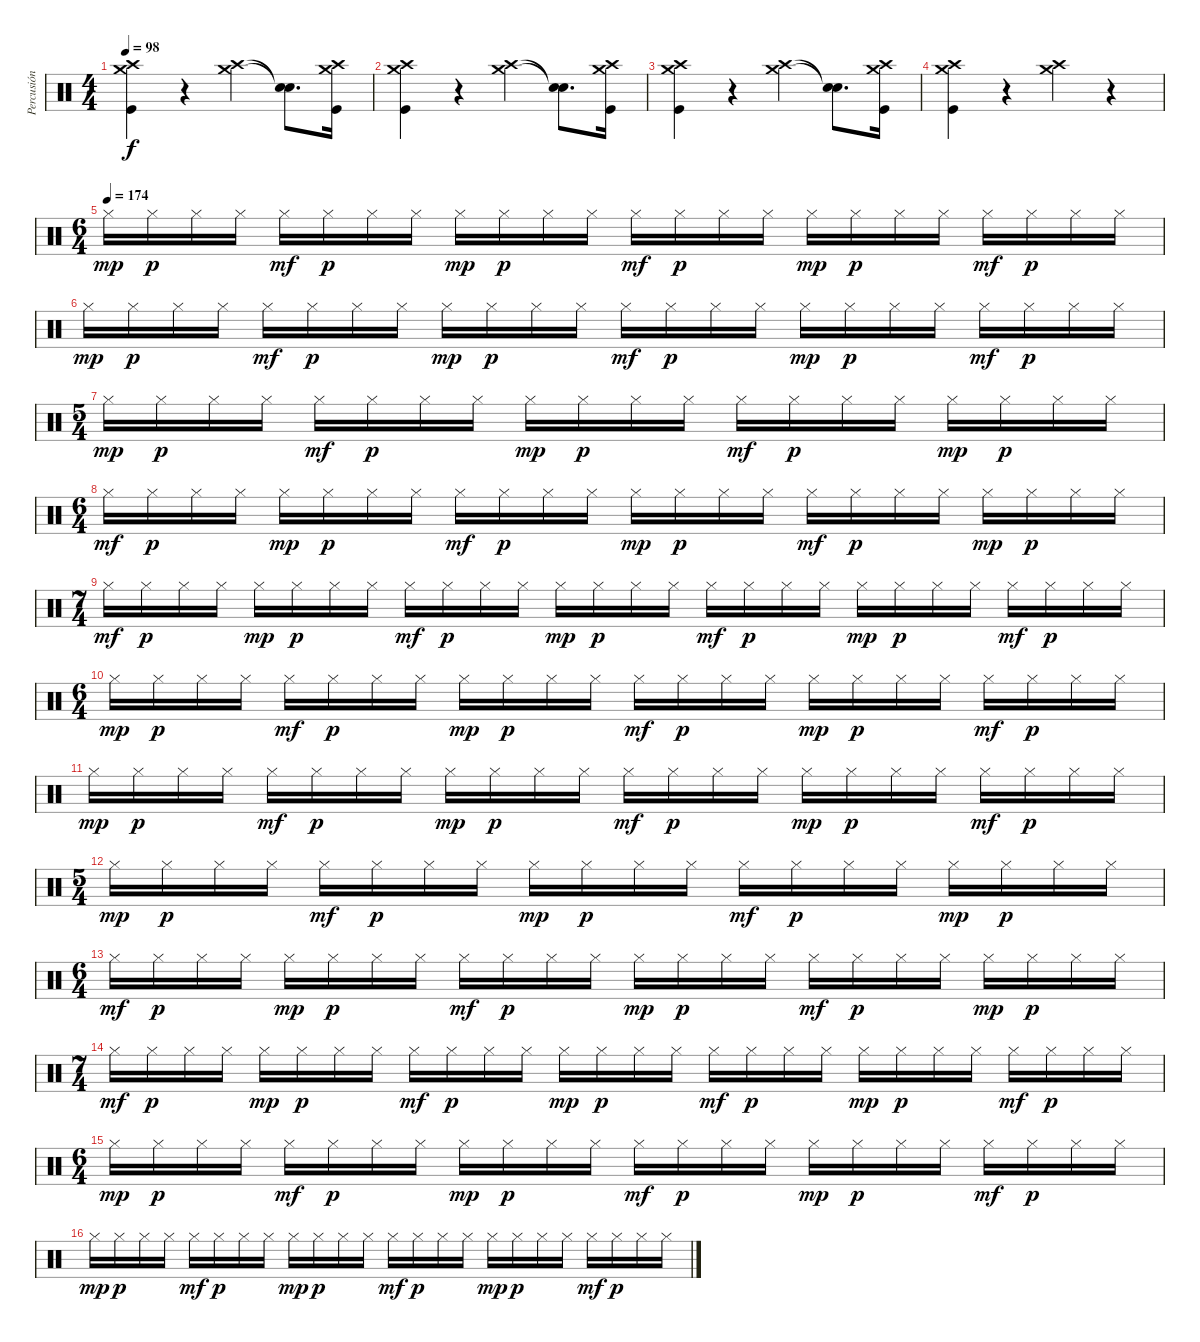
\track ("Percusión" "Percusión") {instrument percussion}
\staff {score}
\articulation defaults
\ts (4 4)
\tempo 98
\clef neutral
\ks c
("Crash high (hit)" "Crash medium (hit)" "Kick (hit)").4{dy f} r.4{volume 0} ("Crash high (hit)" "Crash medium (hit)").4{volume 14} ("Snare (hit)"{t} "Snare (hit)"{t}).8{d} ("Crash high (hit)" "Crash medium (hit)" "Kick (hit)").16 |
("Crash high (hit)" "Crash medium (hit)" "Kick (hit)").4 r.4{volume 0} ("Crash high (hit)" "Crash medium (hit)").4{volume 14} ("Snare (hit)"{t} "Snare (hit)"{t}).8{d} ("Crash high (hit)" "Crash medium (hit)" "Kick (hit)").16 |
("Crash high (hit)" "Crash medium (hit)" "Kick (hit)").4 r.4{volume 0} ("Crash high (hit)" "Crash medium (hit)").4{volume 14} ("Snare (hit)"{t} "Snare (hit)"{t}).8{d} ("Crash high (hit)" "Crash medium (hit)" "Kick (hit)").16 |
("Crash high (hit)" "Crash medium (hit)" "Kick (hit)").4 r.4{volume 0} ("Crash high (hit)" "Crash medium (hit)").4{volume 14} r.4 |
\ts (6 4)
\tempo (174)
"Hi-Hat (closed)".16{dy mp} "Hi-Hat (closed)".16{dy p} "Hi-Hat (closed)".16 "Hi-Hat (closed)".16 "Hi-Hat (closed)".16{dy mf} "Hi-Hat (closed)".16{dy p} "Hi-Hat (closed)".16 "Hi-Hat (closed)".16 "Hi-Hat (closed)".16{dy mp} "Hi-Hat (closed)".16{dy p} "Hi-Hat (closed)".16 "Hi-Hat (closed)".16 "Hi-Hat (closed)".16{dy mf} "Hi-Hat (closed)".16{dy p} "Hi-Hat (closed)".16 "Hi-Hat (closed)".16 "Hi-Hat (closed)".16{dy mp} "Hi-Hat (closed)".16{dy p} "Hi-Hat (closed)".16 "Hi-Hat (closed)".16 "Hi-Hat (closed)".16{dy mf} "Hi-Hat (closed)".16{dy p} "Hi-Hat (closed)".16 "Hi-Hat (closed)".16 |
"Hi-Hat (closed)".16{dy mp} "Hi-Hat (closed)".16{dy p} "Hi-Hat (closed)".16 "Hi-Hat (closed)".16 "Hi-Hat (closed)".16{dy mf} "Hi-Hat (closed)".16{dy p} "Hi-Hat (closed)".16 "Hi-Hat (closed)".16 "Hi-Hat (closed)".16{dy mp} "Hi-Hat (closed)".16{dy p} "Hi-Hat (closed)".16 "Hi-Hat (closed)".16 "Hi-Hat (closed)".16{dy mf} "Hi-Hat (closed)".16{dy p} "Hi-Hat (closed)".16 "Hi-Hat (closed)".16 "Hi-Hat (closed)".16{dy mp} "Hi-Hat (closed)".16{dy p} "Hi-Hat (closed)".16 "Hi-Hat (closed)".16 "Hi-Hat (closed)".16{dy mf} "Hi-Hat (closed)".16{dy p} "Hi-Hat (closed)".16 "Hi-Hat (closed)".16 |
\ts (5 4)
"Hi-Hat (closed)".16{dy mp} "Hi-Hat (closed)".16{dy p} "Hi-Hat (closed)".16 "Hi-Hat (closed)".16 "Hi-Hat (closed)".16{dy mf} "Hi-Hat (closed)".16{dy p} "Hi-Hat (closed)".16 "Hi-Hat (closed)".16 "Hi-Hat (closed)".16{dy mp} "Hi-Hat (closed)".16{dy p} "Hi-Hat (closed)".16 "Hi-Hat (closed)".16 "Hi-Hat (closed)".16{dy mf} "Hi-Hat (closed)".16{dy p} "Hi-Hat (closed)".16 "Hi-Hat (closed)".16 "Hi-Hat (closed)".16{dy mp} "Hi-Hat (closed)".16{dy p} "Hi-Hat (closed)".16 "Hi-Hat (closed)".16 |
\ts (6 4)
"Hi-Hat (closed)".16{dy mf} "Hi-Hat (closed)".16{dy p} "Hi-Hat (closed)".16 "Hi-Hat (closed)".16 "Hi-Hat (closed)".16{dy mp} "Hi-Hat (closed)".16{dy p} "Hi-Hat (closed)".16 "Hi-Hat (closed)".16 "Hi-Hat (closed)".16{dy mf} "Hi-Hat (closed)".16{dy p} "Hi-Hat (closed)".16 "Hi-Hat (closed)".16 "Hi-Hat (closed)".16{dy mp} "Hi-Hat (closed)".16{dy p} "Hi-Hat (closed)".16 "Hi-Hat (closed)".16 "Hi-Hat (closed)".16{dy mf} "Hi-Hat (closed)".16{dy p} "Hi-Hat (closed)".16 "Hi-Hat (closed)".16 "Hi-Hat (closed)".16{dy mp} "Hi-Hat (closed)".16{dy p} "Hi-Hat (closed)".16 "Hi-Hat (closed)".16 |
\ts (7 4)
"Hi-Hat (closed)".16{dy mf} "Hi-Hat (closed)".16{dy p} "Hi-Hat (closed)".16 "Hi-Hat (closed)".16 "Hi-Hat (closed)".16{dy mp} "Hi-Hat (closed)".16{dy p} "Hi-Hat (closed)".16 "Hi-Hat (closed)".16 "Hi-Hat (closed)".16{dy mf} "Hi-Hat (closed)".16{dy p} "Hi-Hat (closed)".16 "Hi-Hat (closed)".16 "Hi-Hat (closed)".16{dy mp} "Hi-Hat (closed)".16{dy p} "Hi-Hat (closed)".16 "Hi-Hat (closed)".16 "Hi-Hat (closed)".16{dy mf} "Hi-Hat (closed)".16{dy p} "Hi-Hat (closed)".16 "Hi-Hat (closed)".16 "Hi-Hat (closed)".16{dy mp} "Hi-Hat (closed)".16{dy p} "Hi-Hat (closed)".16 "Hi-Hat (closed)".16 "Hi-Hat (closed)".16{dy mf} "Hi-Hat (closed)".16{dy p} "Hi-Hat (closed)".16 "Hi-Hat (closed)".16 |
\ts (6 4)
"Hi-Hat (closed)".16{dy mp} "Hi-Hat (closed)".16{dy p} "Hi-Hat (closed)".16 "Hi-Hat (closed)".16 "Hi-Hat (closed)".16{dy mf} "Hi-Hat (closed)".16{dy p} "Hi-Hat (closed)".16 "Hi-Hat (closed)".16 "Hi-Hat (closed)".16{dy mp} "Hi-Hat (closed)".16{dy p} "Hi-Hat (closed)".16 "Hi-Hat (closed)".16 "Hi-Hat (closed)".16{dy mf} "Hi-Hat (closed)".16{dy p} "Hi-Hat (closed)".16 "Hi-Hat (closed)".16 "Hi-Hat (closed)".16{dy mp} "Hi-Hat (closed)".16{dy p} "Hi-Hat (closed)".16 "Hi-Hat (closed)".16 "Hi-Hat (closed)".16{dy mf} "Hi-Hat (closed)".16{dy p} "Hi-Hat (closed)".16 "Hi-Hat (closed)".16 |
"Hi-Hat (closed)".16{dy mp} "Hi-Hat (closed)".16{dy p} "Hi-Hat (closed)".16 "Hi-Hat (closed)".16 "Hi-Hat (closed)".16{dy mf} "Hi-Hat (closed)".16{dy p} "Hi-Hat (closed)".16 "Hi-Hat (closed)".16 "Hi-Hat (closed)".16{dy mp} "Hi-Hat (closed)".16{dy p} "Hi-Hat (closed)".16 "Hi-Hat (closed)".16 "Hi-Hat (closed)".16{dy mf} "Hi-Hat (closed)".16{dy p} "Hi-Hat (closed)".16 "Hi-Hat (closed)".16 "Hi-Hat (closed)".16{dy mp} "Hi-Hat (closed)".16{dy p} "Hi-Hat (closed)".16 "Hi-Hat (closed)".16 "Hi-Hat (closed)".16{dy mf} "Hi-Hat (closed)".16{dy p} "Hi-Hat (closed)".16 "Hi-Hat (closed)".16 |
\ts (5 4)
"Hi-Hat (closed)".16{dy mp} "Hi-Hat (closed)".16{dy p} "Hi-Hat (closed)".16 "Hi-Hat (closed)".16 "Hi-Hat (closed)".16{dy mf} "Hi-Hat (closed)".16{dy p} "Hi-Hat (closed)".16 "Hi-Hat (closed)".16 "Hi-Hat (closed)".16{dy mp} "Hi-Hat (closed)".16{dy p} "Hi-Hat (closed)".16 "Hi-Hat (closed)".16 "Hi-Hat (closed)".16{dy mf} "Hi-Hat (closed)".16{dy p} "Hi-Hat (closed)".16 "Hi-Hat (closed)".16 "Hi-Hat (closed)".16{dy mp} "Hi-Hat (closed)".16{dy p} "Hi-Hat (closed)".16 "Hi-Hat (closed)".16 |
\ts (6 4)
"Hi-Hat (closed)".16{dy mf} "Hi-Hat (closed)".16{dy p} "Hi-Hat (closed)".16 "Hi-Hat (closed)".16 "Hi-Hat (closed)".16{dy mp} "Hi-Hat (closed)".16{dy p} "Hi-Hat (closed)".16 "Hi-Hat (closed)".16 "Hi-Hat (closed)".16{dy mf} "Hi-Hat (closed)".16{dy p} "Hi-Hat (closed)".16 "Hi-Hat (closed)".16 "Hi-Hat (closed)".16{dy mp} "Hi-Hat (closed)".16{dy p} "Hi-Hat (closed)".16 "Hi-Hat (closed)".16 "Hi-Hat (closed)".16{dy mf} "Hi-Hat (closed)".16{dy p} "Hi-Hat (closed)".16 "Hi-Hat (closed)".16 "Hi-Hat (closed)".16{dy mp} "Hi-Hat (closed)".16{dy p} "Hi-Hat (closed)".16 "Hi-Hat (closed)".16 |
\ts (7 4)
"Hi-Hat (closed)".16{dy mf} "Hi-Hat (closed)".16{dy p} "Hi-Hat (closed)".16 "Hi-Hat (closed)".16 "Hi-Hat (closed)".16{dy mp} "Hi-Hat (closed)".16{dy p} "Hi-Hat (closed)".16 "Hi-Hat (closed)".16 "Hi-Hat (closed)".16{dy mf} "Hi-Hat (closed)".16{dy p} "Hi-Hat (closed)".16 "Hi-Hat (closed)".16 "Hi-Hat (closed)".16{dy mp} "Hi-Hat (closed)".16{dy p} "Hi-Hat (closed)".16 "Hi-Hat (closed)".16 "Hi-Hat (closed)".16{dy mf} "Hi-Hat (closed)".16{dy p} "Hi-Hat (closed)".16 "Hi-Hat (closed)".16 "Hi-Hat (closed)".16{dy mp} "Hi-Hat (closed)".16{dy p} "Hi-Hat (closed)".16 "Hi-Hat (closed)".16 "Hi-Hat (closed)".16{dy mf} "Hi-Hat (closed)".16{dy p} "Hi-Hat (closed)".16 "Hi-Hat (closed)".16 |
\ts (6 4)
"Hi-Hat (closed)".16{dy mp} "Hi-Hat (closed)".16{dy p} "Hi-Hat (closed)".16 "Hi-Hat (closed)".16 "Hi-Hat (closed)".16{dy mf} "Hi-Hat (closed)".16{dy p} "Hi-Hat (closed)".16 "Hi-Hat (closed)".16 "Hi-Hat (closed)".16{dy mp} "Hi-Hat (closed)".16{dy p} "Hi-Hat (closed)".16 "Hi-Hat (closed)".16 "Hi-Hat (closed)".16{dy mf} "Hi-Hat (closed)".16{dy p} "Hi-Hat (closed)".16 "Hi-Hat (closed)".16 "Hi-Hat (closed)".16{dy mp} "Hi-Hat (closed)".16{dy p} "Hi-Hat (closed)".16 "Hi-Hat (closed)".16 "Hi-Hat (closed)".16{dy mf} "Hi-Hat (closed)".16{dy p} "Hi-Hat (closed)".16 "Hi-Hat (closed)".16 |
"Hi-Hat (closed)".16{dy mp} "Hi-Hat (closed)".16{dy p} "Hi-Hat (closed)".16 "Hi-Hat (closed)".16 "Hi-Hat (closed)".16{dy mf} "Hi-Hat (closed)".16{dy p} "Hi-Hat (closed)".16 "Hi-Hat (closed)".16 "Hi-Hat (closed)".16{dy mp} "Hi-Hat (closed)".16{dy p} "Hi-Hat (closed)".16 "Hi-Hat (closed)".16 "Hi-Hat (closed)".16{dy mf} "Hi-Hat (closed)".16{dy p} "Hi-Hat (closed)".16 "Hi-Hat (closed)".16 "Hi-Hat (closed)".16{dy mp} "Hi-Hat (closed)".16{dy p} "Hi-Hat (closed)".16 "Hi-Hat (closed)".16 "Hi-Hat (closed)".16{dy mf} "Hi-Hat (closed)".16{dy p} "Hi-Hat (closed)".16 "Hi-Hat (closed)".16
